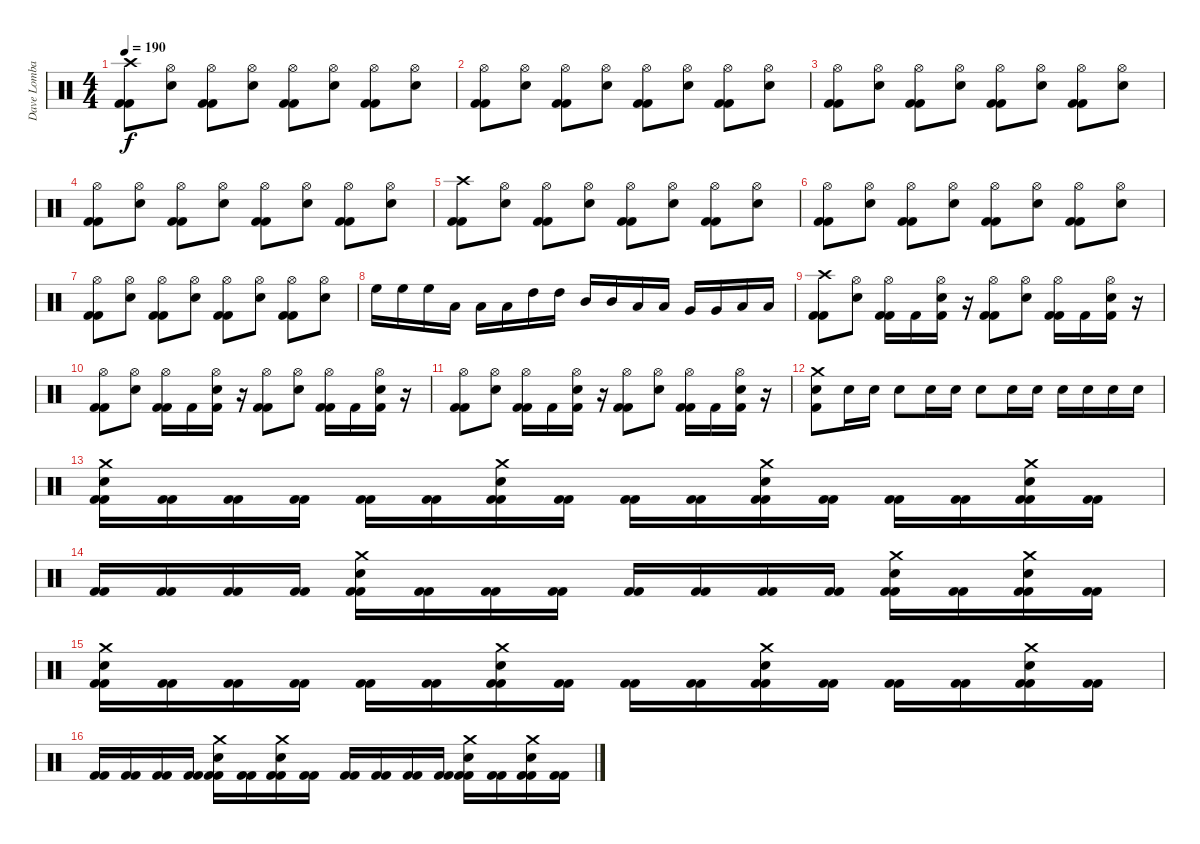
\track ("Dave Lombardo" "Dave Lomba") {instrument percussion}
\staff {score}
\articulation defaults
\ts (4 4)
\tempo 190
\clef neutral
\ks c
("Kick (hit) 2" "Crash high (hit)" "Kick (hit) 2").8{dy f} ("Hi-Hat (open)" "Electric Snare (hit)").8 ("Kick (hit) 2" "Hi-Hat (open)" "Kick (hit) 2").8 ("Hi-Hat (open)" "Electric Snare (hit)").8 ("Kick (hit) 2" "Hi-Hat (open)" "Kick (hit) 2").8 ("Hi-Hat (open)" "Electric Snare (hit)").8 ("Kick (hit) 2" "Hi-Hat (open)" "Kick (hit) 2").8 ("Hi-Hat (open)" "Electric Snare (hit)").8 |
("Kick (hit) 2" "Hi-Hat (open)" "Kick (hit) 2").8 ("Hi-Hat (open)" "Electric Snare (hit)").8 ("Kick (hit) 2" "Hi-Hat (open)" "Kick (hit) 2").8 ("Hi-Hat (open)" "Electric Snare (hit)").8 ("Kick (hit) 2" "Hi-Hat (open)" "Kick (hit) 2").8 ("Hi-Hat (open)" "Electric Snare (hit)").8 ("Kick (hit) 2" "Hi-Hat (open)" "Kick (hit) 2").8 ("Hi-Hat (open)" "Electric Snare (hit)").8 |
("Kick (hit) 2" "Hi-Hat (open)" "Kick (hit) 2").8 ("Hi-Hat (open)" "Electric Snare (hit)").8 ("Kick (hit) 2" "Hi-Hat (open)" "Kick (hit) 2").8 ("Hi-Hat (open)" "Electric Snare (hit)").8 ("Kick (hit) 2" "Hi-Hat (open)" "Kick (hit) 2").8 ("Hi-Hat (open)" "Electric Snare (hit)").8 ("Kick (hit) 2" "Hi-Hat (open)" "Kick (hit) 2").8 ("Hi-Hat (open)" "Electric Snare (hit)").8 |
("Kick (hit) 2" "Hi-Hat (open)" "Kick (hit) 2").8 ("Hi-Hat (open)" "Electric Snare (hit)").8 ("Kick (hit) 2" "Hi-Hat (open)" "Kick (hit) 2").8 ("Hi-Hat (open)" "Electric Snare (hit)").8 ("Kick (hit) 2" "Hi-Hat (open)" "Kick (hit) 2").8 ("Hi-Hat (open)" "Electric Snare (hit)").8 ("Kick (hit) 2" "Hi-Hat (open)" "Kick (hit) 2").8 ("Hi-Hat (open)" "Electric Snare (hit)").8 |
("Kick (hit) 2" "Crash high (hit)" "Kick (hit) 2").8 ("Hi-Hat (open)" "Electric Snare (hit)").8 ("Kick (hit) 2" "Hi-Hat (open)" "Kick (hit) 2").8 ("Hi-Hat (open)" "Electric Snare (hit)").8 ("Kick (hit) 2" "Hi-Hat (open)" "Kick (hit) 2").8 ("Hi-Hat (open)" "Electric Snare (hit)").8 ("Kick (hit) 2" "Hi-Hat (open)" "Kick (hit) 2").8 ("Hi-Hat (open)" "Electric Snare (hit)").8 |
("Kick (hit) 2" "Hi-Hat (open)" "Kick (hit) 2").8 ("Hi-Hat (open)" "Electric Snare (hit)").8 ("Kick (hit) 2" "Hi-Hat (open)" "Kick (hit) 2").8 ("Hi-Hat (open)" "Electric Snare (hit)").8 ("Kick (hit) 2" "Hi-Hat (open)" "Kick (hit) 2").8 ("Hi-Hat (open)" "Electric Snare (hit)").8 ("Kick (hit) 2" "Hi-Hat (open)" "Kick (hit) 2").8 ("Hi-Hat (open)" "Electric Snare (hit)").8 |
("Kick (hit) 2" "Hi-Hat (open)" "Kick (hit) 2").8 ("Hi-Hat (open)" "Electric Snare (hit)").8 ("Kick (hit) 2" "Hi-Hat (open)" "Kick (hit) 2").8 ("Hi-Hat (open)" "Electric Snare (hit)").8 ("Kick (hit) 2" "Hi-Hat (open)" "Kick (hit) 2").8 ("Hi-Hat (open)" "Electric Snare (hit)").8 ("Kick (hit) 2" "Hi-Hat (open)" "Kick (hit) 2").8 ("Hi-Hat (open)" "Electric Snare (hit)").8 |
"High Floor Tom (hit)".16 "High Floor Tom (hit)".16 "High Floor Tom (hit)".16 "Low Tom (hit)".16 "Low Tom (hit)".16 "Low Tom (hit)".16 "High Tom (hit)".16 "High Tom (hit)".16 "Mid Tom (hit)".16 "Mid Tom (hit)".16 "Low Tom (hit)".16 "Low Tom (hit)".16 "Very Low Tom (hit)".16 "Very Low Tom (hit)".16 "Low Floor Tom (hit)".16 "Low Floor Tom (hit)".16 |
("Kick (hit) 2" "Crash high (hit)" "Kick (hit) 2").8 ("Hi-Hat (open)" "Electric Snare (hit)").8 ("Kick (hit) 2" "Hi-Hat (open)" "Kick (hit) 2").16 "Kick (hit) 2".16 ("Hi-Hat (open)" "Electric Snare (hit)" "Kick (hit) 2").16 r.16 ("Kick (hit) 2" "Hi-Hat (open)" "Kick (hit) 2").8 ("Hi-Hat (open)" "Electric Snare (hit)").8 ("Kick (hit) 2" "Hi-Hat (open)" "Kick (hit) 2").16 "Kick (hit) 2".16 ("Hi-Hat (open)" "Electric Snare (hit)" "Kick (hit) 2").16 r.16 |
("Kick (hit) 2" "Hi-Hat (open)" "Kick (hit) 2").8 ("Hi-Hat (open)" "Electric Snare (hit)").8 ("Kick (hit) 2" "Hi-Hat (open)" "Kick (hit) 2").16 "Kick (hit) 2".16 ("Hi-Hat (open)" "Electric Snare (hit)" "Kick (hit) 2").16 r.16 ("Kick (hit) 2" "Hi-Hat (open)" "Kick (hit) 2").8 ("Hi-Hat (open)" "Electric Snare (hit)").8 ("Kick (hit) 2" "Hi-Hat (open)" "Kick (hit) 2").16 "Kick (hit) 2".16 ("Hi-Hat (open)" "Electric Snare (hit)" "Kick (hit) 2").16 r.16 |
("Kick (hit) 2" "Hi-Hat (open)" "Kick (hit) 2").8 ("Hi-Hat (open)" "Electric Snare (hit)").8 ("Kick (hit) 2" "Hi-Hat (open)" "Kick (hit) 2").16 "Kick (hit) 2".16 ("Hi-Hat (open)" "Electric Snare (hit)" "Kick (hit) 2").16 r.16 ("Kick (hit) 2" "Hi-Hat (open)" "Kick (hit) 2").8 ("Hi-Hat (open)" "Electric Snare (hit)").8 ("Kick (hit) 2" "Hi-Hat (open)" "Kick (hit) 2").16 "Kick (hit) 2".16 ("Hi-Hat (open)" "Electric Snare (hit)" "Kick (hit) 2").16 r.16 |
("Crash medium (hit)" "Electric Snare (hit)" "Kick (hit) 2").8 "Electric Snare (hit)".16 "Electric Snare (hit)".16 "Electric Snare (hit)".8 "Electric Snare (hit)".16 "Electric Snare (hit)".16 "Electric Snare (hit)".8 "Electric Snare (hit)".16 "Electric Snare (hit)".16 "Electric Snare (hit)".16 "Electric Snare (hit)".16 "Electric Snare (hit)".16 "Electric Snare (hit)".16 |
("Kick (hit) 2" "Crash medium (hit)" "Electric Snare (hit)" "Kick (hit) 2").16 ("Kick (hit) 2" "Kick (hit) 2").16 ("Kick (hit) 2" "Kick (hit) 2").16 ("Kick (hit) 2" "Kick (hit) 2").16 ("Kick (hit) 2" "Kick (hit) 2").16 ("Kick (hit) 2" "Kick (hit) 2").16 ("Kick (hit) 2" "Crash medium (hit)" "Electric Snare (hit)" "Kick (hit) 2").16 ("Kick (hit) 2" "Kick (hit) 2").16 ("Kick (hit) 2" "Kick (hit) 2").16 ("Kick (hit) 2" "Kick (hit) 2").16 ("Kick (hit) 2" "Crash medium (hit)" "Electric Snare (hit)" "Kick (hit) 2").16 ("Kick (hit) 2" "Kick (hit) 2").16 ("Kick (hit) 2" "Kick (hit) 2").16 ("Kick (hit) 2" "Kick (hit) 2").16 ("Kick (hit) 2" "Crash medium (hit)" "Electric Snare (hit)" "Kick (hit) 2").16 ("Kick (hit) 2" "Kick (hit) 2").16 |
("Kick (hit) 2" "Kick (hit) 2").16 ("Kick (hit) 2" "Kick (hit) 2").16 ("Kick (hit) 2" "Kick (hit) 2").16 ("Kick (hit) 2" "Kick (hit) 2").16 ("Kick (hit) 2" "Crash medium (hit)" "Electric Snare (hit)" "Kick (hit) 2").16 ("Kick (hit) 2" "Kick (hit) 2").16 ("Kick (hit) 2" "Kick (hit) 2").16 ("Kick (hit) 2" "Kick (hit) 2").16 ("Kick (hit) 2" "Kick (hit) 2").16 ("Kick (hit) 2" "Kick (hit) 2").16 ("Kick (hit) 2" "Kick (hit) 2").16 ("Kick (hit) 2" "Kick (hit) 2").16 ("Kick (hit) 2" "Crash medium (hit)" "Electric Snare (hit)" "Kick (hit) 2").16 ("Kick (hit) 2" "Kick (hit) 2").16 ("Kick (hit) 2" "Crash medium (hit)" "Electric Snare (hit)" "Kick (hit) 2").16 ("Kick (hit) 2" "Kick (hit) 2").16 |
("Kick (hit) 2" "Crash medium (hit)" "Electric Snare (hit)" "Kick (hit) 2").16 ("Kick (hit) 2" "Kick (hit) 2").16 ("Kick (hit) 2" "Kick (hit) 2").16 ("Kick (hit) 2" "Kick (hit) 2").16 ("Kick (hit) 2" "Kick (hit) 2").16 ("Kick (hit) 2" "Kick (hit) 2").16 ("Kick (hit) 2" "Crash medium (hit)" "Electric Snare (hit)" "Kick (hit) 2").16 ("Kick (hit) 2" "Kick (hit) 2").16 ("Kick (hit) 2" "Kick (hit) 2").16 ("Kick (hit) 2" "Kick (hit) 2").16 ("Kick (hit) 2" "Crash medium (hit)" "Electric Snare (hit)" "Kick (hit) 2").16 ("Kick (hit) 2" "Kick (hit) 2").16 ("Kick (hit) 2" "Kick (hit) 2").16 ("Kick (hit) 2" "Kick (hit) 2").16 ("Kick (hit) 2" "Crash medium (hit)" "Electric Snare (hit)" "Kick (hit) 2").16 ("Kick (hit) 2" "Kick (hit) 2").16 |
("Kick (hit) 2" "Kick (hit) 2").16 ("Kick (hit) 2" "Kick (hit) 2").16 ("Kick (hit) 2" "Kick (hit) 2").16 ("Kick (hit) 2" "Kick (hit) 2").16 ("Kick (hit) 2" "Crash medium (hit)" "Electric Snare (hit)" "Kick (hit) 2").16 ("Kick (hit) 2" "Kick (hit) 2").16 ("Kick (hit) 2" "Crash medium (hit)" "Electric Snare (hit)" "Kick (hit) 2").16 ("Kick (hit) 2" "Kick (hit) 2").16 ("Kick (hit) 2" "Kick (hit) 2").16 ("Kick (hit) 2" "Kick (hit) 2").16 ("Kick (hit) 2" "Kick (hit) 2").16 ("Kick (hit) 2" "Kick (hit) 2").16 ("Kick (hit) 2" "Crash medium (hit)" "Electric Snare (hit)" "Kick (hit) 2").16 ("Kick (hit) 2" "Kick (hit) 2").16 ("Kick (hit) 2" "Crash medium (hit)" "Electric Snare (hit)" "Kick (hit) 2").16 ("Kick (hit) 2" "Kick (hit) 2").16
